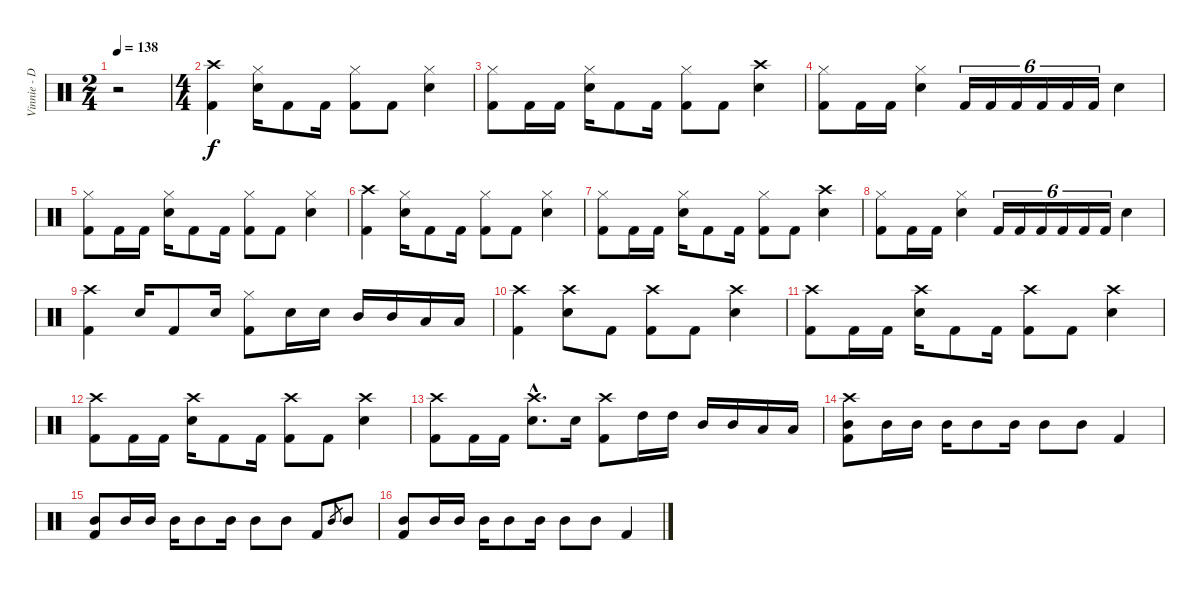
\track ("Vinnie - Drums" "Vinnie - D") {instrument percussion}
\staff {score}
\articulation defaults
\ts (2 4)
\tempo 138
\clef neutral
\ks c
r.2{dy f} |
\ts (4 4)
("Crash high (hit)" "Kick (hit) 2").4 ("Hi-Hat (closed)" "Electric Snare (hit)").16 "Kick (hit) 2".8 "Kick (hit) 2".16 ("Hi-Hat (closed)" "Kick (hit) 2").8 "Kick (hit) 2".8 ("Hi-Hat (closed)" "Electric Snare (hit)").4 |
("Hi-Hat (closed)" "Kick (hit) 2").8 "Kick (hit) 2".16 "Kick (hit) 2".16 ("Hi-Hat (closed)" "Electric Snare (hit)").16 "Kick (hit) 2".8 "Kick (hit) 2".16 ("Hi-Hat (closed)" "Kick (hit) 2").8 "Kick (hit) 2".8 ("Crash high (hit)" "Electric Snare (hit)").4 |
("Hi-Hat (closed)" "Kick (hit) 2").8 "Kick (hit) 2".16 "Kick (hit) 2".16 ("Hi-Hat (closed)" "Electric Snare (hit)").4 "Kick (hit) 2".16{tu (6 4)} "Kick (hit) 2".16{tu (6 4)} "Kick (hit) 2".16{tu (6 4)} "Kick (hit) 2".16{tu (6 4)} "Kick (hit) 2".16{tu (6 4)} "Kick (hit) 2".16{tu (6 4)} "Electric Snare (hit)".4 |
("Hi-Hat (closed)" "Kick (hit) 2").8 "Kick (hit) 2".16 "Kick (hit) 2".16 ("Hi-Hat (closed)" "Electric Snare (hit)").16 "Kick (hit) 2".8 "Kick (hit) 2".16 ("Hi-Hat (closed)" "Kick (hit) 2").8 "Kick (hit) 2".8 ("Hi-Hat (closed)" "Electric Snare (hit)").4 |
("Crash high (hit)" "Kick (hit) 2").4 ("Hi-Hat (closed)" "Electric Snare (hit)").16 "Kick (hit) 2".8 "Kick (hit) 2".16 ("Hi-Hat (closed)" "Kick (hit) 2").8 "Kick (hit) 2".8 ("Hi-Hat (closed)" "Electric Snare (hit)").4 |
("Hi-Hat (closed)" "Kick (hit) 2").8 "Kick (hit) 2".16 "Kick (hit) 2".16 ("Hi-Hat (closed)" "Electric Snare (hit)").16 "Kick (hit) 2".8 "Kick (hit) 2".16 ("Hi-Hat (closed)" "Kick (hit) 2").8 "Kick (hit) 2".8 ("Crash high (hit)" "Electric Snare (hit)").4 |
("Hi-Hat (closed)" "Kick (hit) 2").8 "Kick (hit) 2".16 "Kick (hit) 2".16 ("Hi-Hat (closed)" "Electric Snare (hit)").4 "Kick (hit) 2".16{tu (6 4)} "Kick (hit) 2".16{tu (6 4)} "Kick (hit) 2".16{tu (6 4)} "Kick (hit) 2".16{tu (6 4)} "Kick (hit) 2".16{tu (6 4)} "Kick (hit) 2".16{tu (6 4)} "Electric Snare (hit)".4 |
("Crash high (hit)" "Kick (hit) 2").4 "Electric Snare (hit)".16 "Kick (hit) 2".8 "Electric Snare (hit)".16 ("Hi-Hat (closed)" "Kick (hit) 2").8 "Electric Snare (hit)".16 "Electric Snare (hit)".16 "Mid Tom (hit)".16 "Mid Tom (hit)".16 "Low Tom (hit)".16 "Low Tom (hit)".16 |
("Crash high (hit)" "Kick (hit) 2").4 ("Crash high (hit)" "Electric Snare (hit)").8 "Kick (hit) 2".8 ("Crash high (hit)" "Kick (hit) 2").8 "Kick (hit) 2".8 ("Crash high (hit)" "Electric Snare (hit)").4 |
("Crash high (hit)" "Kick (hit) 2").8 "Kick (hit) 2".16 "Kick (hit) 2".16 ("Crash high (hit)" "Electric Snare (hit)").16 "Kick (hit) 2".8 "Kick (hit) 2".16 ("Crash high (hit)" "Kick (hit) 2").8 "Kick (hit) 2".8 ("Crash high (hit)" "Electric Snare (hit)").4 |
("Crash high (hit)" "Kick (hit) 2").8 "Kick (hit) 2".16 "Kick (hit) 2".16 ("Crash high (hit)" "Electric Snare (hit)").16 "Kick (hit) 2".8 "Kick (hit) 2".16 ("Crash high (hit)" "Kick (hit) 2").8 "Kick (hit) 2".8 ("Crash high (hit)" "Electric Snare (hit)").4 |
("Crash high (hit)" "Kick (hit) 2").8 "Kick (hit) 2".16 "Kick (hit) 2".16 ("Crash high (hit)"{hac} "Electric Snare (hit)"{hac}).8{d} "Electric Snare (hit)".16 ("Crash high (hit)" "Kick (hit) 2").8 "High Tom (hit)".16 "High Tom (hit)".16 "Mid Tom (hit)".16 "Mid Tom (hit)".16 "Low Tom (hit)".16 "Low Tom (hit)".16 |
("Crash high (hit)" "Mid Tom (hit)" "Kick (hit) 2").8 "Mid Tom (hit)".16 "Mid Tom (hit)".16 "Mid Tom (hit)".16 "Mid Tom (hit)".8 "Mid Tom (hit)".16 "Mid Tom (hit)".8 "Mid Tom (hit)".8 "Kick (hit) 2".4 |
("Mid Tom (hit)" "Kick (hit) 2").8 "Mid Tom (hit)".16 "Mid Tom (hit)".16 "Mid Tom (hit)".16 "Mid Tom (hit)".8 "Mid Tom (hit)".16 "Mid Tom (hit)".8 "Mid Tom (hit)".8 "Kick (hit) 2".8 "Mid Tom (hit)".8{gr} "Mid Tom (hit)".8 |
("Mid Tom (hit)" "Kick (hit) 2").8 "Mid Tom (hit)".16 "Mid Tom (hit)".16 "Mid Tom (hit)".16 "Mid Tom (hit)".8 "Mid Tom (hit)".16 "Mid Tom (hit)".8 "Mid Tom (hit)".8 "Kick (hit) 2".4
